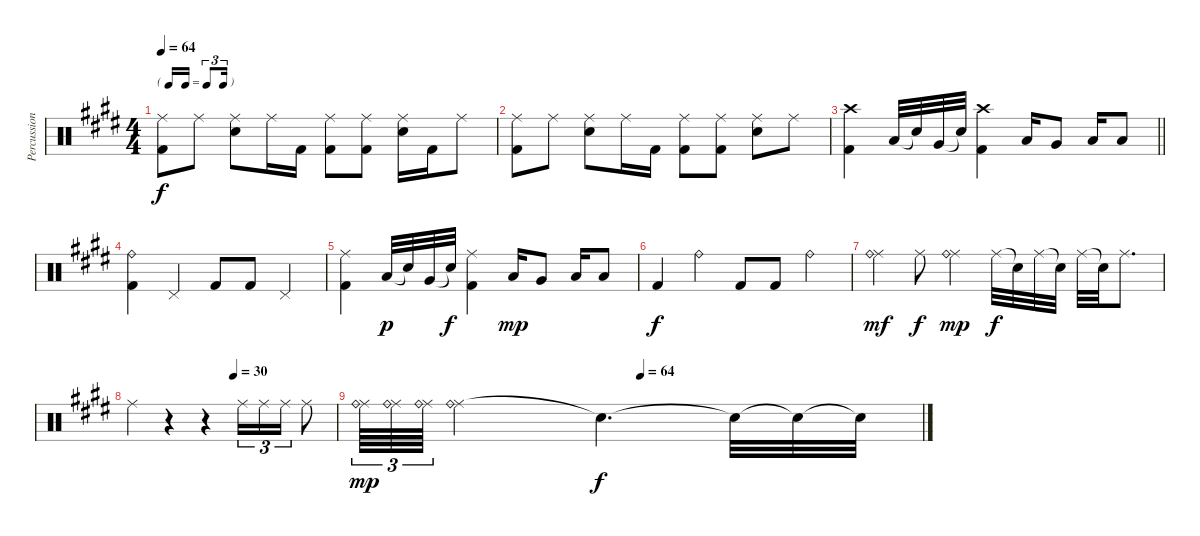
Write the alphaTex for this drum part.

\track ("Percussion" "Percussion") {instrument percussion}
\staff {score}
\articulation defaults
\ts (4 4)
\tf triplet16th
\tempo 64
\clef neutral
\ks e
("Ride (middle)" "Kick (hit) 2").8{dy f} "Ride (middle)".8 ("Ride (middle)" "Snare (hit) 2").8 "Ride (middle)".16 "Kick (hit) 2".16 ("Ride (middle)" "Kick (hit) 2").8 ("Ride (middle)" "Kick (hit) 2").8 ("Ride (middle)" "Snare (hit) 2").16 "Kick (hit) 2".16 "Ride (middle)".8 |
("Ride (middle)" "Kick (hit) 2").8 "Ride (middle)".8 ("Ride (middle)" "Snare (hit) 2").8 "Ride (middle)".16 "Kick (hit) 2".16 ("Ride (middle)" "Kick (hit) 2").8 ("Ride (middle)" "Kick (hit) 2").8 ("Ride (middle)" "Snare (hit) 2").8 "Ride (middle)".8 |
\barLineRight lightlight
("Crash high (hit)" "Kick (hit) 2").4 "Low Tom (hit)".32 "Snare (hit)"{t}.32 "Very Low Tom (hit)".32 "Snare (hit)"{t}.32 ("Crash high (hit)" "Kick (hit) 2").4 "Low Tom (hit)".16 "Very Low Tom (hit)".8 "Low Floor Tom (hit)".16 "Low Floor Tom (hit)".8 |
("Ride (bell)" "Kick (hit) 2").4 "Pedal Hi-Hat (hit)".4 "Kick (hit) 2".8 "Kick (hit) 2".8 "Pedal Hi-Hat (hit)".4 |
("Ride (middle)" "Kick (hit) 2").4 "Low Tom (hit)".32{dy p} "Snare (hit)"{t}.32 "Very Low Tom (hit)".32 "Snare (hit)"{t}.32{dy f} ("Ride (middle)" "Kick (hit) 2").4 "Low Tom (hit)".16{dy mp} "Very Low Tom (hit)".8 "Low Floor Tom (hit)".16 "Low Floor Tom (hit)".8 |
"Kick (hit) 2".4{dy f} "Ride (bell)".4 "Kick (hit) 2".8 "Kick (hit) 2".8 "Ride (bell)".4 |
("Ride (middle)" "Ride (bell)").4{dy mf} "Ride (middle)".8{dy f} ("Ride (middle)" "Ride (bell)").4{dy mp} "Ride (middle)".32{dy f} "Snare (hit)"{t}.32 "Ride (middle)".32 "Snare (hit)"{t}.32 "Ride (middle)".32 "Snare (hit)"{t}.32 "Ride (middle)".8{d} |
\tempo (30 0.5)
"Ride (middle)".4 r.4 r.4 "Ride (middle)".16{tu (3 2)} "Ride (middle)".16{tu (3 2)} "Ride (middle)".16{tu (3 2)} "Ride (middle)".8 |
\tempo (64 0.5)
("Ride (middle)" "Ride (bell)").64{tu (3 2) dy mp} ("Ride (middle)" "Ride (bell)").64{tu (3 2)} ("Ride (middle)" "Ride (bell)").64{tu (3 2)} ("Ride (middle)" "Ride (bell)").2 "Snare (hit)"{t}.4{d dy f} "Snare (hit)"{t}.32 "Snare (hit)"{t}.32 "Snare (hit)"{t}.32
